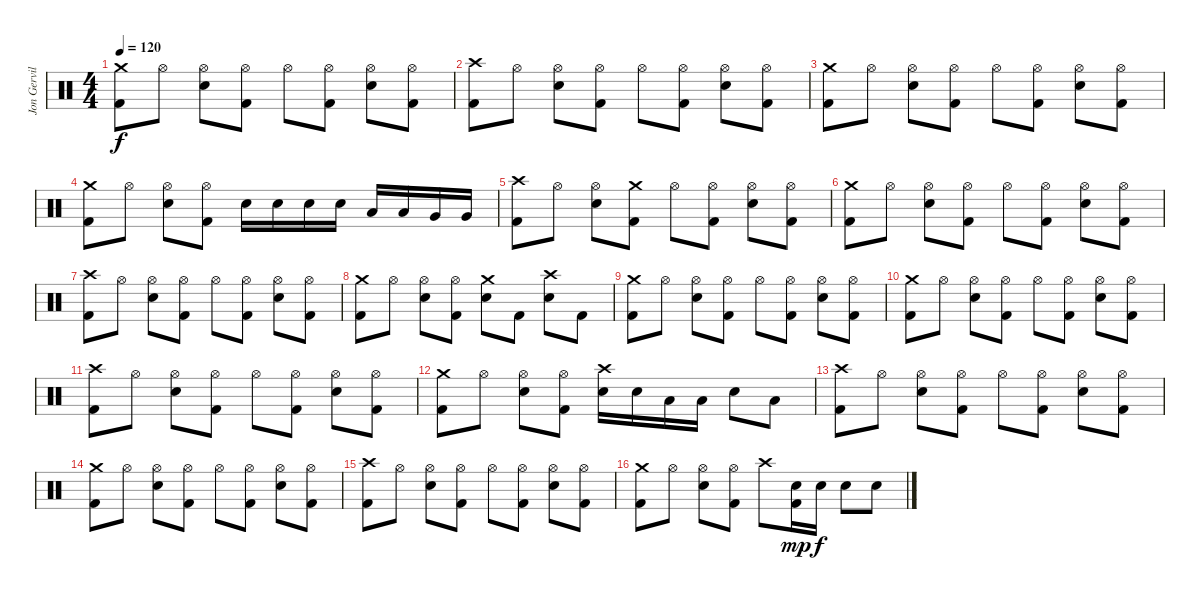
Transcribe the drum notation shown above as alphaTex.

\track ("Jon Gerville (Drums)" "Jon Gervil") {instrument percussion}
\staff {score}
\articulation defaults
\ts (4 4)
\tempo 120
\clef neutral
\ks c
("Crash medium (hit)" "Kick (hit) 2").8{dy f} "Hi-Hat (open)".8 ("Hi-Hat (open)" "Electric Snare (hit)").8 ("Hi-Hat (open)" "Kick (hit) 2").8 "Hi-Hat (open)".8 ("Hi-Hat (open)" "Kick (hit) 2").8 ("Hi-Hat (open)" "Electric Snare (hit)").8 ("Hi-Hat (open)" "Kick (hit) 2").8 |
("Crash high (hit)" "Kick (hit) 2").8 "Hi-Hat (open)".8 ("Hi-Hat (open)" "Electric Snare (hit)").8 ("Hi-Hat (open)" "Kick (hit) 2").8 "Hi-Hat (open)".8 ("Hi-Hat (open)" "Kick (hit) 2").8 ("Hi-Hat (open)" "Electric Snare (hit)").8 ("Hi-Hat (open)" "Kick (hit) 2").8 |
("Crash medium (hit)" "Kick (hit) 2").8 "Hi-Hat (open)".8 ("Hi-Hat (open)" "Electric Snare (hit)").8 ("Hi-Hat (open)" "Kick (hit) 2").8 "Hi-Hat (open)".8 ("Hi-Hat (open)" "Kick (hit) 2").8 ("Hi-Hat (open)" "Electric Snare (hit)").8 ("Hi-Hat (open)" "Kick (hit) 2").8 |
("Crash medium (hit)" "Kick (hit) 2").8 "Hi-Hat (open)".8 ("Hi-Hat (open)" "Electric Snare (hit)").8 ("Hi-Hat (open)" "Kick (hit) 2").8 "Electric Snare (hit)".16 "Electric Snare (hit)".16 "Electric Snare (hit)".16 "Electric Snare (hit)".16 "Low Tom (hit)".16 "Low Tom (hit)".16 "Very Low Tom (hit)".16 "Very Low Tom (hit)".16 |
("Crash high (hit)" "Kick (hit) 2").8 "Hi-Hat (open)".8 ("Hi-Hat (open)" "Electric Snare (hit)").8 ("Crash medium (hit)" "Kick (hit) 2").8 "Hi-Hat (open)".8 ("Hi-Hat (open)" "Kick (hit) 2").8 ("Hi-Hat (open)" "Electric Snare (hit)").8 ("Hi-Hat (open)" "Kick (hit) 2").8 |
("Crash medium (hit)" "Kick (hit) 2").8 "Hi-Hat (open)".8 ("Hi-Hat (open)" "Electric Snare (hit)").8 ("Hi-Hat (open)" "Kick (hit) 2").8 "Hi-Hat (open)".8 ("Hi-Hat (open)" "Kick (hit) 2").8 ("Hi-Hat (open)" "Electric Snare (hit)").8 ("Hi-Hat (open)" "Kick (hit) 2").8 |
("Crash high (hit)" "Kick (hit) 2").8 "Hi-Hat (open)".8 ("Hi-Hat (open)" "Electric Snare (hit)").8 ("Hi-Hat (open)" "Kick (hit) 2").8 "Hi-Hat (open)".8 ("Hi-Hat (open)" "Kick (hit) 2").8 ("Hi-Hat (open)" "Electric Snare (hit)").8 ("Hi-Hat (open)" "Kick (hit) 2").8 |
("Crash medium (hit)" "Kick (hit) 2").8 "Hi-Hat (open)".8 ("Hi-Hat (open)" "Electric Snare (hit)").8 ("Hi-Hat (open)" "Kick (hit) 2").8 ("Crash medium (hit)" "Electric Snare (hit)").8 "Kick (hit) 2".8 ("Crash high (hit)" "Electric Snare (hit)").8 "Kick (hit) 2".8 |
("Crash medium (hit)" "Kick (hit) 2").8 "Hi-Hat (open)".8 ("Hi-Hat (open)" "Electric Snare (hit)").8 ("Hi-Hat (open)" "Kick (hit) 2").8 "Hi-Hat (open)".8 ("Hi-Hat (open)" "Kick (hit) 2").8 ("Hi-Hat (open)" "Electric Snare (hit)").8 ("Hi-Hat (open)" "Kick (hit) 2").8 |
("Crash medium (hit)" "Kick (hit) 2").8 "Hi-Hat (open)".8 ("Hi-Hat (open)" "Electric Snare (hit)").8 ("Hi-Hat (open)" "Kick (hit) 2").8 "Hi-Hat (open)".8 ("Hi-Hat (open)" "Kick (hit) 2").8 ("Hi-Hat (open)" "Electric Snare (hit)").8 ("Hi-Hat (open)" "Kick (hit) 2").8 |
("Crash high (hit)" "Kick (hit) 2").8 "Hi-Hat (open)".8 ("Hi-Hat (open)" "Electric Snare (hit)").8 ("Hi-Hat (open)" "Kick (hit) 2").8 "Hi-Hat (open)".8 ("Hi-Hat (open)" "Kick (hit) 2").8 ("Hi-Hat (open)" "Electric Snare (hit)").8 ("Hi-Hat (open)" "Kick (hit) 2").8 |
("Crash medium (hit)" "Kick (hit) 2").8 "Hi-Hat (open)".8 ("Hi-Hat (open)" "Electric Snare (hit)").8 ("Hi-Hat (open)" "Kick (hit) 2").8 ("Crash high (hit)" "Electric Snare (hit)").16 "Electric Snare (hit)".16 "Low Tom (hit)".16 "Low Tom (hit)".16 "Electric Snare (hit)".8 "Low Tom (hit)".8 |
("Crash high (hit)" "Kick (hit) 2").8 "Hi-Hat (open)".8 ("Hi-Hat (open)" "Electric Snare (hit)").8 ("Hi-Hat (open)" "Kick (hit) 2").8 "Hi-Hat (open)".8 ("Hi-Hat (open)" "Kick (hit) 2").8 ("Hi-Hat (open)" "Electric Snare (hit)").8 ("Hi-Hat (open)" "Kick (hit) 2").8 |
("Crash medium (hit)" "Kick (hit) 2").8 "Hi-Hat (open)".8 ("Hi-Hat (open)" "Electric Snare (hit)").8 ("Hi-Hat (open)" "Kick (hit) 2").8 "Hi-Hat (open)".8 ("Hi-Hat (open)" "Kick (hit) 2").8 ("Hi-Hat (open)" "Electric Snare (hit)").8 ("Hi-Hat (open)" "Kick (hit) 2").8 |
("Crash high (hit)" "Kick (hit) 2").8 "Hi-Hat (open)".8 ("Hi-Hat (open)" "Electric Snare (hit)").8 ("Hi-Hat (open)" "Kick (hit) 2").8 "Hi-Hat (open)".8 ("Hi-Hat (open)" "Kick (hit) 2").8 ("Hi-Hat (open)" "Electric Snare (hit)").8 ("Hi-Hat (open)" "Kick (hit) 2").8 |
("Crash medium (hit)" "Kick (hit) 2").8 "Hi-Hat (open)".8 ("Hi-Hat (open)" "Electric Snare (hit)").8 ("Hi-Hat (open)" "Kick (hit) 2").8 "Crash high (hit)".8 ("Electric Snare (hit)" "Kick (hit) 2").16{dy mp} "Electric Snare (hit)".16{dy f} "Electric Snare (hit)".8 "Electric Snare (hit)".8
